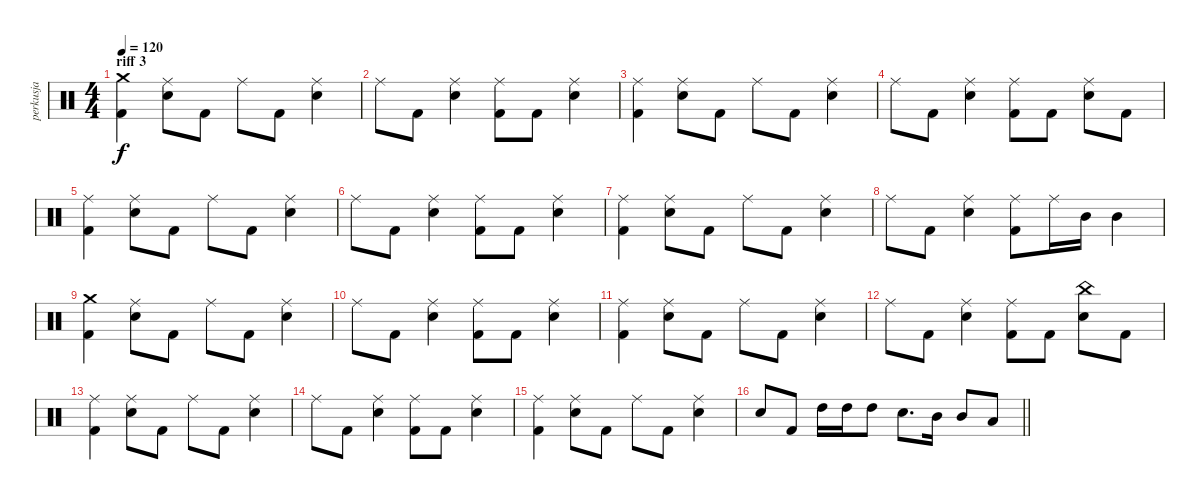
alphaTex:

\track ("perkusja" "perkusja") {instrument percussion}
\staff {score}
\articulation defaults
\ts (4 4)
\section ("" "riff 3")
\tempo 120
\clef neutral
\ks c
("Crash medium (hit)" "Kick (hit) 2").4{dy f} ("Ride (middle)" "Electric Snare (hit)").8 "Kick (hit) 2".8 "Ride (middle)".8 "Kick (hit) 2".8 ("Ride (middle)" "Electric Snare (hit)").4 |
"Ride (middle)".8 "Kick (hit) 2".8 ("Ride (middle)" "Electric Snare (hit)").4 ("Ride (middle)" "Kick (hit) 2").8 "Kick (hit) 2".8 ("Ride (middle)" "Electric Snare (hit)").4 |
("Ride (middle)" "Kick (hit) 2").4 ("Ride (middle)" "Electric Snare (hit)").8 "Kick (hit) 2".8 "Ride (middle)".8 "Kick (hit) 2".8 ("Ride (middle)" "Electric Snare (hit)").4 |
"Ride (middle)".8 "Kick (hit) 2".8 ("Ride (middle)" "Electric Snare (hit)").4 ("Ride (middle)" "Kick (hit) 2").8 "Kick (hit) 2".8 ("Ride (middle)" "Electric Snare (hit)").8 "Kick (hit) 2".8 |
("Ride (middle)" "Kick (hit) 2").4 ("Ride (middle)" "Electric Snare (hit)").8 "Kick (hit) 2".8 "Ride (middle)".8 "Kick (hit) 2".8 ("Ride (middle)" "Electric Snare (hit)").4 |
"Ride (middle)".8 "Kick (hit) 2".8 ("Ride (middle)" "Electric Snare (hit)").4 ("Ride (middle)" "Kick (hit) 2").8 "Kick (hit) 2".8 ("Ride (middle)" "Electric Snare (hit)").4 |
("Ride (middle)" "Kick (hit) 2").4 ("Ride (middle)" "Electric Snare (hit)").8 "Kick (hit) 2".8 "Ride (middle)".8 "Kick (hit) 2".8 ("Ride (middle)" "Electric Snare (hit)").4 |
"Ride (middle)".8 "Kick (hit) 2".8 ("Ride (middle)" "Electric Snare (hit)").4 ("Ride (middle)" "Kick (hit) 2").8 "Ride (middle)".16 "Mid Tom (hit)".16 "Mid Tom (hit)".4 |
("Crash medium (hit)" "Kick (hit) 2").4 ("Ride (middle)" "Electric Snare (hit)").8 "Kick (hit) 2".8 "Ride (middle)".8 "Kick (hit) 2".8 ("Ride (middle)" "Electric Snare (hit)").4 |
"Ride (middle)".8 "Kick (hit) 2".8 ("Ride (middle)" "Electric Snare (hit)").4 ("Ride (middle)" "Kick (hit) 2").8 "Kick (hit) 2".8 ("Ride (middle)" "Electric Snare (hit)").4 |
("Ride (middle)" "Kick (hit) 2").4 ("Ride (middle)" "Electric Snare (hit)").8 "Kick (hit) 2".8 "Ride (middle)".8 "Kick (hit) 2".8 ("Ride (middle)" "Electric Snare (hit)").4 |
"Ride (middle)".8 "Kick (hit) 2".8 ("Ride (middle)" "Electric Snare (hit)").4 ("Ride (middle)" "Kick (hit) 2").8 "Kick (hit) 2".8 ("China (hit)" "Electric Snare (hit)").8 "Kick (hit) 2".8 |
("Ride (middle)" "Kick (hit) 2").4 ("Ride (middle)" "Electric Snare (hit)").8 "Kick (hit) 2".8 "Ride (middle)".8 "Kick (hit) 2".8 ("Ride (middle)" "Electric Snare (hit)").4 |
"Ride (middle)".8 "Kick (hit) 2".8 ("Ride (middle)" "Electric Snare (hit)").4 ("Ride (middle)" "Kick (hit) 2").8 "Kick (hit) 2".8 ("Ride (middle)" "Electric Snare (hit)").4 |
("Ride (middle)" "Kick (hit) 2").4 ("Ride (middle)" "Electric Snare (hit)").8 "Kick (hit) 2".8 "Ride (middle)".8 "Kick (hit) 2".8 ("Ride (middle)" "Electric Snare (hit)").4 |
\barLineRight lightlight "Electric Snare (hit)".8 "Kick (hit) 2".8 "High Tom (hit)".16 "High Tom (hit)".16 "High Tom (hit)".8 "Electric Snare (hit)".8{d} "Mid Tom (hit)".16 "Mid Tom (hit)".8 "Low Tom (hit)".8
